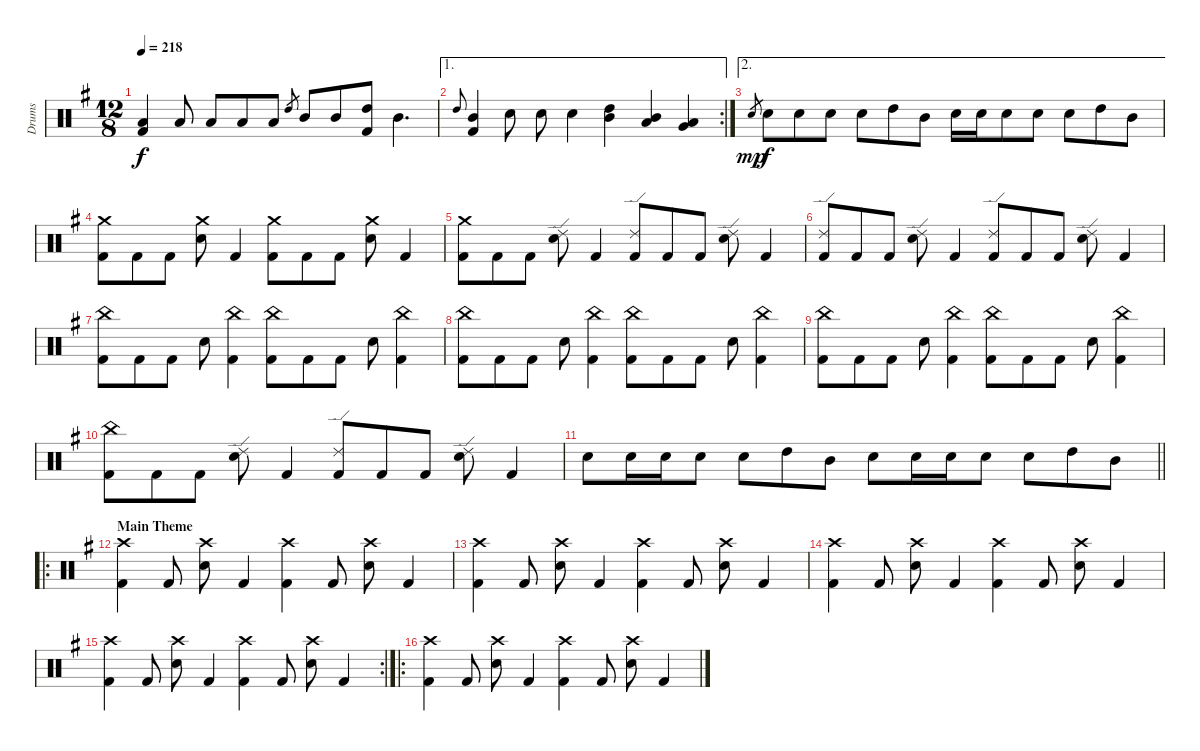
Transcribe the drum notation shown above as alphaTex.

\track ("Drums" "Drums") {solo instrument percussion}
\staff {score}
\articulation defaults
\ts (12 8)
\tempo 218
\clef neutral
\ks eminor
("Low Tom (hit)" "Kick (hit) 2").4{dy f} "Low Tom (hit)".8 "Low Tom (hit)".8 "Low Tom (hit)".8 "Low Tom (hit)".8 "High Tom (hit)".8{gr} "Mid Tom (hit)".8 "Mid Tom (hit)".8 ("High Tom (hit)" "Kick (hit) 2").8 "Mid Tom (hit)".4{d} |
\ae 1
\rc 2 "High Tom (hit)".8{gr onbeat}
("Mid Tom (hit)" "Kick (hit) 2").4 "Electric Snare (hit)".8 "Electric Snare (hit)".8 "Electric Snare (hit)".4 ("High Tom (hit)" "Mid Tom (hit)").4 ("Mid Tom (hit)" "Low Tom (hit)").4 ("Low Tom (hit)" "Very Low Tom (hit)").4 |
\ae 2 "Electric Snare (hit)".8{gr dy mp} "Electric Snare (hit)".8{dy f} "Electric Snare (hit)".8 "Electric Snare (hit)".8 "Electric Snare (hit)".8 "High Tom (hit)".8 "Mid Tom (hit)".8 "Electric Snare (hit)".16 "Electric Snare (hit)".16 "Electric Snare (hit)".8 "Electric Snare (hit)".8 "Electric Snare (hit)".8 "High Tom (hit)".8 "Mid Tom (hit)".8
|
("Crash medium (hit)" "Kick (hit) 2").8 "Kick (hit) 2".8 "Kick (hit) 2".8 ("Crash medium (hit)" "Electric Snare (hit)").8 "Kick (hit) 2".4 ("Crash medium (hit)" "Kick (hit) 2").8 "Kick (hit) 2".8 "Kick (hit) 2".8 ("Crash medium (hit)" "Electric Snare (hit)").8 "Kick (hit) 2".4 |
("Crash medium (hit)" "Kick (hit) 2").8 "Kick (hit) 2".8 "Kick (hit) 2".8 ("Ride (edge) 2" "Electric Snare (hit)").8 "Kick (hit) 2".4 ("Ride (edge) 2" "Kick (hit) 2").8 "Kick (hit) 2".8 "Kick (hit) 2".8 ("Ride (edge) 2" "Electric Snare (hit)").8 "Kick (hit) 2".4 |
("Ride (edge) 2" "Kick (hit) 2").8 "Kick (hit) 2".8 "Kick (hit) 2".8 ("Ride (edge) 2" "Electric Snare (hit)").8 "Kick (hit) 2".4 ("Ride (edge) 2" "Kick (hit) 2").8 "Kick (hit) 2".8 "Kick (hit) 2".8 ("Ride (edge) 2" "Electric Snare (hit)").8 "Kick (hit) 2".4 |
("China (hit)" "Kick (hit) 2").8 "Kick (hit) 2".8 "Kick (hit) 2".8 "Electric Snare (hit)".8 ("China (hit)" "Kick (hit) 2").4 ("China (hit)" "Kick (hit) 2").8 "Kick (hit) 2".8 "Kick (hit) 2".8 "Electric Snare (hit)".8 ("China (hit)" "Kick (hit) 2").4 |
("China (hit)" "Kick (hit) 2").8 "Kick (hit) 2".8 "Kick (hit) 2".8 "Electric Snare (hit)".8 ("China (hit)" "Kick (hit) 2").4 ("China (hit)" "Kick (hit) 2").8 "Kick (hit) 2".8 "Kick (hit) 2".8 "Electric Snare (hit)".8 ("China (hit)" "Kick (hit) 2").4 |
("China (hit)" "Kick (hit) 2").8 "Kick (hit) 2".8 "Kick (hit) 2".8 "Electric Snare (hit)".8 ("China (hit)" "Kick (hit) 2").4 ("China (hit)" "Kick (hit) 2").8 "Kick (hit) 2".8 "Kick (hit) 2".8 "Electric Snare (hit)".8 ("China (hit)" "Kick (hit) 2").4 |
("China (hit)" "Kick (hit) 2").8 "Kick (hit) 2".8 "Kick (hit) 2".8 ("Ride (edge) 2" "Electric Snare (hit)").8 "Kick (hit) 2".4 ("Ride (edge) 2" "Kick (hit) 2").8 "Kick (hit) 2".8 "Kick (hit) 2".8 ("Ride (edge) 2" "Electric Snare (hit)").8 "Kick (hit) 2".4 |
\barLineRight lightlight "Electric Snare (hit)".8 "Electric Snare (hit)".16 "Electric Snare (hit)".16 "Electric Snare (hit)".8 "Electric Snare (hit)".8 "High Tom (hit)".8 "Mid Tom (hit)".8 "Electric Snare (hit)".8 "Electric Snare (hit)".16 "Electric Snare (hit)".16 "Electric Snare (hit)".8 "Electric Snare (hit)".8 "High Tom (hit)".8 "Mid Tom (hit)".8
|
\ro
\section ("" "Main Theme")
("Crash high (hit)" "Kick (hit) 2").4 "Kick (hit) 2".8 ("Crash high (hit)" "Electric Snare (hit)").8 "Kick (hit) 2".4 ("Crash high (hit)" "Kick (hit) 2").4 "Kick (hit) 2".8 ("Crash high (hit)" "Electric Snare (hit)").8 "Kick (hit) 2".4 |
("Crash high (hit)" "Kick (hit) 2").4 "Kick (hit) 2".8 ("Crash high (hit)" "Electric Snare (hit)").8 "Kick (hit) 2".4 ("Crash high (hit)" "Kick (hit) 2").4 "Kick (hit) 2".8 ("Crash high (hit)" "Electric Snare (hit)").8 "Kick (hit) 2".4 |
("Crash high (hit)" "Kick (hit) 2").4 "Kick (hit) 2".8 ("Crash high (hit)" "Electric Snare (hit)").8 "Kick (hit) 2".4 ("Crash high (hit)" "Kick (hit) 2").4 "Kick (hit) 2".8 ("Crash high (hit)" "Electric Snare (hit)").8 "Kick (hit) 2".4 |
\rc 2
("Crash high (hit)" "Kick (hit) 2").4 "Kick (hit) 2".8 ("Crash high (hit)" "Electric Snare (hit)").8 "Kick (hit) 2".4 ("Crash high (hit)" "Kick (hit) 2").4 "Kick (hit) 2".8 ("Crash high (hit)" "Electric Snare (hit)").8 "Kick (hit) 2".4 |
\ro
("Crash high (hit)" "Kick (hit) 2").4 "Kick (hit) 2".8 ("Crash high (hit)" "Electric Snare (hit)").8 "Kick (hit) 2".4 ("Crash high (hit)" "Kick (hit) 2").4 "Kick (hit) 2".8 ("Crash high (hit)" "Electric Snare (hit)").8 "Kick (hit) 2".4
